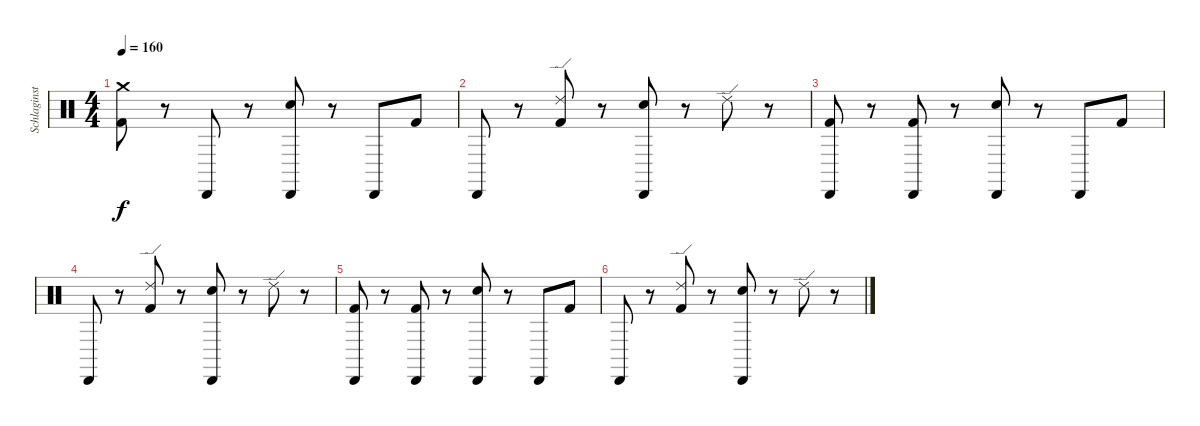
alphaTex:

\track ("Schlaginstrumente - Auswahl" "Schlaginst") {instrument percussion}
\staff {score}
\articulation defaults
\ts (4 4)
\tempo 160
\clef neutral
\ks c
("Crash medium (hit)" "Kick (hit) 2").8{dy f} r.8 "Cabasa (hit)".8 r.8 ("Cabasa (hit)" "Snare (hit) 2").8 r.8 "Cabasa (hit)".8 "Kick (hit) 2".8 |
"Cabasa (hit)".8 r.8 ("Ride (edge) 2" "Kick (hit) 2").8 r.8 ("Cabasa (hit)" "Snare (hit) 2").8 r.8 "Ride (edge) 2".8 r.8 |
("Cabasa (hit)" "Kick (hit) 2").8 r.8 ("Cabasa (hit)" "Kick (hit) 2").8 r.8 ("Cabasa (hit)" "Snare (hit) 2").8 r.8 "Cabasa (hit)".8 "Kick (hit) 2".8 |
"Cabasa (hit)".8 r.8 ("Ride (edge) 2" "Kick (hit) 2").8 r.8 ("Cabasa (hit)" "Snare (hit) 2").8 r.8 "Ride (edge) 2".8 r.8 |
("Cabasa (hit)" "Kick (hit) 2").8 r.8 ("Cabasa (hit)" "Kick (hit) 2").8 r.8 ("Cabasa (hit)" "Snare (hit) 2").8 r.8 "Cabasa (hit)".8 "Kick (hit) 2".8 |
"Cabasa (hit)".8 r.8 ("Ride (edge) 2" "Kick (hit) 2").8 r.8 ("Cabasa (hit)" "Snare (hit) 2").8 r.8 "Ride (edge) 2".8 r.8
